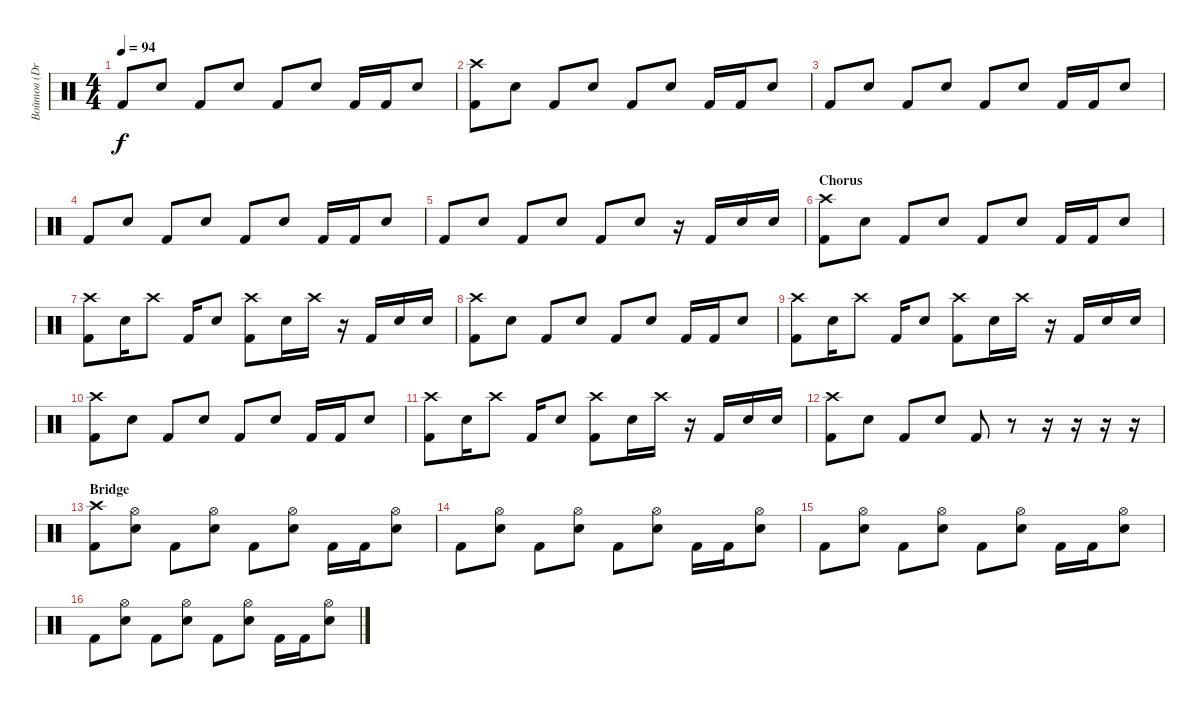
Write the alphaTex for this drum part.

\track ("Войтов (Drums)" "Войтов (Dr") {instrument percussion}
\staff {score}
\articulation defaults
\ts (4 4)
\tempo 94
\clef neutral
\ks c "Kick (hit) 2".8{dy f} "Electric Snare (hit)".8 "Kick (hit) 2".8 "Electric Snare (hit)".8 "Kick (hit) 2".8 "Electric Snare (hit)".8 "Kick (hit) 2".16 "Kick (hit) 2".16 "Electric Snare (hit)".8
|
("Kick (hit) 2" "Crash high (hit)").8 "Electric Snare (hit)".8 "Kick (hit) 2".8 "Electric Snare (hit)".8 "Kick (hit) 2".8 "Electric Snare (hit)".8 "Kick (hit) 2".16 "Kick (hit) 2".16 "Electric Snare (hit)".8 |
"Kick (hit) 2".8 "Electric Snare (hit)".8 "Kick (hit) 2".8 "Electric Snare (hit)".8 "Kick (hit) 2".8 "Electric Snare (hit)".8 "Kick (hit) 2".16 "Kick (hit) 2".16 "Electric Snare (hit)".8 |
"Kick (hit) 2".8 "Electric Snare (hit)".8 "Kick (hit) 2".8 "Electric Snare (hit)".8 "Kick (hit) 2".8 "Electric Snare (hit)".8 "Kick (hit) 2".16 "Kick (hit) 2".16 "Electric Snare (hit)".8 |
"Kick (hit) 2".8 "Electric Snare (hit)".8 "Kick (hit) 2".8 "Electric Snare (hit)".8 "Kick (hit) 2".8 "Electric Snare (hit)".8 r.16 "Kick (hit) 2".16 "Electric Snare (hit)".16 "Electric Snare (hit)".16 |
\section ("" "Chorus")
("Kick (hit) 2" "Crash high (hit)").8 "Electric Snare (hit)".8 "Kick (hit) 2".8 "Electric Snare (hit)".8 "Kick (hit) 2".8 "Electric Snare (hit)".8 "Kick (hit) 2".16 "Kick (hit) 2".16 "Electric Snare (hit)".8 |
("Kick (hit) 2" "Crash high (hit)").8 "Electric Snare (hit)".16 "Crash high (hit)".8 "Kick (hit) 2".16 "Electric Snare (hit)".8 ("Kick (hit) 2" "Crash high (hit)").8 "Electric Snare (hit)".16 "Crash high (hit)".16 r.16 "Kick (hit) 2".16 "Electric Snare (hit)".16 "Electric Snare (hit)".16 |
("Kick (hit) 2" "Crash high (hit)").8 "Electric Snare (hit)".8 "Kick (hit) 2".8 "Electric Snare (hit)".8 "Kick (hit) 2".8 "Electric Snare (hit)".8 "Kick (hit) 2".16 "Kick (hit) 2".16 "Electric Snare (hit)".8 |
("Kick (hit) 2" "Crash high (hit)").8 "Electric Snare (hit)".16 "Crash high (hit)".8 "Kick (hit) 2".16 "Electric Snare (hit)".8 ("Kick (hit) 2" "Crash high (hit)").8 "Electric Snare (hit)".16 "Crash high (hit)".16 r.16 "Kick (hit) 2".16 "Electric Snare (hit)".16 "Electric Snare (hit)".16 |
("Kick (hit) 2" "Crash high (hit)").8 "Electric Snare (hit)".8 "Kick (hit) 2".8 "Electric Snare (hit)".8 "Kick (hit) 2".8 "Electric Snare (hit)".8 "Kick (hit) 2".16 "Kick (hit) 2".16 "Electric Snare (hit)".8 |
("Kick (hit) 2" "Crash high (hit)").8 "Electric Snare (hit)".16 "Crash high (hit)".8 "Kick (hit) 2".16 "Electric Snare (hit)".8 ("Kick (hit) 2" "Crash high (hit)").8 "Electric Snare (hit)".16 "Crash high (hit)".16 r.16 "Kick (hit) 2".16 "Electric Snare (hit)".16 "Electric Snare (hit)".16 |
("Kick (hit) 2" "Crash high (hit)").8 "Electric Snare (hit)".8 "Kick (hit) 2".8 "Electric Snare (hit)".8 "Kick (hit) 2".8 r.8 r.16 r.16 r.16 r.16 |
\section ("" "Bridge")
("Kick (hit) 2" "Crash high (hit)").8 ("Electric Snare (hit)" "Hi-Hat (open)").8 "Kick (hit) 2".8 ("Electric Snare (hit)" "Hi-Hat (open)").8 "Kick (hit) 2".8 ("Electric Snare (hit)" "Hi-Hat (open)").8 "Kick (hit) 2".16 "Kick (hit) 2".16 ("Electric Snare (hit)" "Hi-Hat (open)").8 |
"Kick (hit) 2".8 ("Electric Snare (hit)" "Hi-Hat (open)").8 "Kick (hit) 2".8 ("Electric Snare (hit)" "Hi-Hat (open)").8 "Kick (hit) 2".8 ("Electric Snare (hit)" "Hi-Hat (open)").8 "Kick (hit) 2".16 "Kick (hit) 2".16 ("Electric Snare (hit)" "Hi-Hat (open)").8 |
"Kick (hit) 2".8 ("Electric Snare (hit)" "Hi-Hat (open)").8 "Kick (hit) 2".8 ("Electric Snare (hit)" "Hi-Hat (open)").8 "Kick (hit) 2".8 ("Electric Snare (hit)" "Hi-Hat (open)").8 "Kick (hit) 2".16 "Kick (hit) 2".16 ("Electric Snare (hit)" "Hi-Hat (open)").8 |
"Kick (hit) 2".8 ("Electric Snare (hit)" "Hi-Hat (open)").8 "Kick (hit) 2".8 ("Electric Snare (hit)" "Hi-Hat (open)").8 "Kick (hit) 2".8 ("Electric Snare (hit)" "Hi-Hat (open)").8 "Kick (hit) 2".16 "Kick (hit) 2".16 ("Electric Snare (hit)" "Hi-Hat (open)").8
